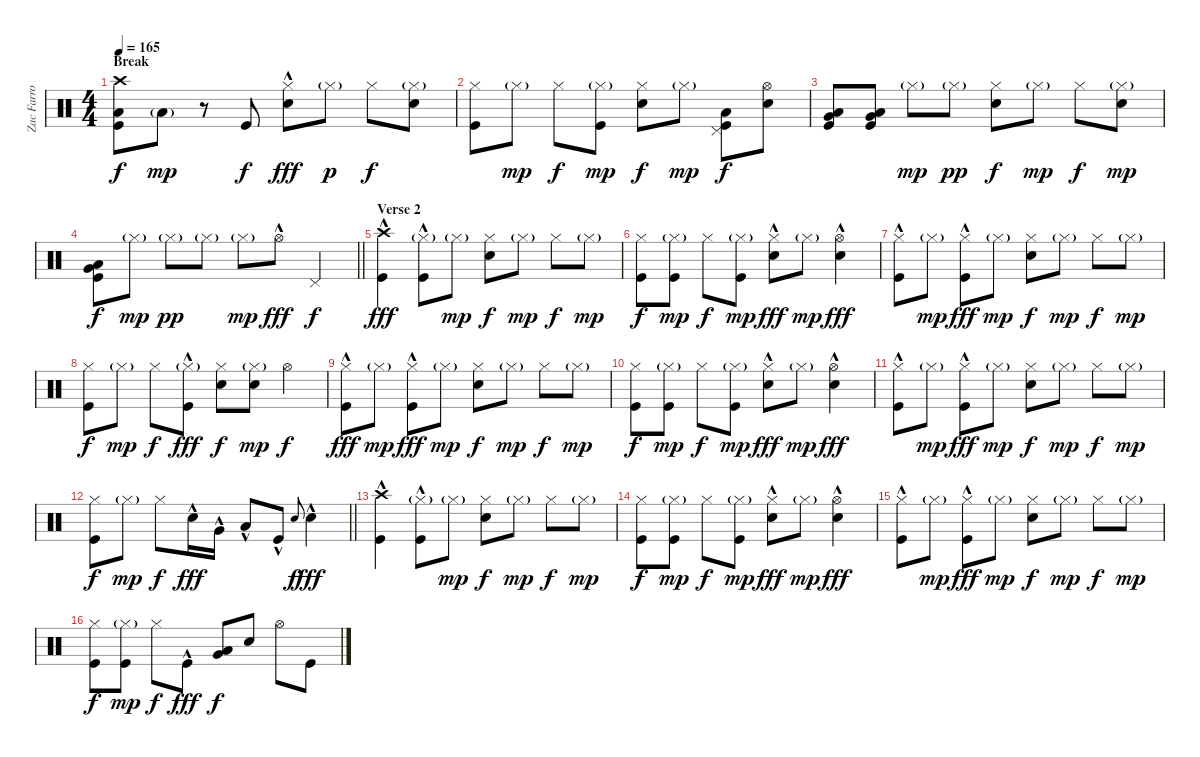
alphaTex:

\track ("Zac Farro (Drums)" "Zac Farro ") {instrument percussion}
\staff {score}
\articulation defaults
\ts (4 4)
\section ("" "Break")
\tempo 165
\clef neutral
\ks c
("Crash high (hit)" "Low Floor Tom (hit)" "Kick (hit)").8{dy f} "Low Floor Tom (hit)"{g}.8{dy mp} r.8 "Kick (hit)".8{dy f} ("Hi-Hat (closed)"{hac} "Electric Snare (hit)").8{dy fff} "Hi-Hat (closed)"{g}.8{dy p} "Hi-Hat (closed)".8{dy f} ("Hi-Hat (closed)"{g} "Electric Snare (hit)").8 |
("Hi-Hat (closed)" "Kick (hit)").8 "Hi-Hat (closed)"{g}.8{dy mp} "Hi-Hat (closed)".8{dy f} ("Hi-Hat (closed)"{g} "Kick (hit)").8{dy mp} ("Hi-Hat (closed)" "Electric Snare (hit)").8{dy f} "Hi-Hat (closed)"{g}.8{dy mp} ("Low Floor Tom (hit)" "Pedal Hi-Hat (hit)" "Kick (hit)").8{dy f} ("Hi-Hat (open)" "Electric Snare (hit)").8 |
("Very Low Tom (hit)" "Low Floor Tom (hit)" "Kick (hit)").8 ("Very Low Tom (hit)" "Low Floor Tom (hit)" "Kick (hit)").8 "Hi-Hat (closed)"{g}.8{dy mp} "Hi-Hat (closed)"{g}.8{dy pp} ("Hi-Hat (closed)" "Electric Snare (hit)").8{dy f} "Hi-Hat (closed)"{g}.8{dy mp} "Hi-Hat (closed)".8{dy f} ("Hi-Hat (closed)"{g} "Electric Snare (hit)").8{dy mp} |
\barLineRight lightlight
("Very Low Tom (hit)" "Low Floor Tom (hit)" "Kick (hit)").8{dy f} "Hi-Hat (closed)"{g}.8{dy mp} "Hi-Hat (closed)"{g}.8{dy pp} "Hi-Hat (closed)"{g}.8 "Hi-Hat (closed)"{g}.8{dy mp} "Hi-Hat (open)"{hac}.8{dy fff} "Pedal Hi-Hat (hit)".4{dy f} |
\section ("" "Verse 2")
("Crash high (hit)"{hac} "Kick (hit)"{hac}).4{dy fff} ("Hi-Hat (closed)"{g} "Kick (hit)"{hac}).8 "Hi-Hat (closed)"{g}.8{dy mp} ("Hi-Hat (closed)" "Electric Snare (hit)").8{dy f} "Hi-Hat (closed)"{g}.8{dy mp} "Hi-Hat (closed)".8{dy f} "Hi-Hat (closed)"{g}.8{dy mp} |
("Hi-Hat (closed)" "Kick (hit)").8{dy f} ("Hi-Hat (closed)"{g} "Kick (hit)").8{dy mp} "Hi-Hat (closed)".8{dy f} ("Hi-Hat (closed)"{g} "Kick (hit)").8{dy mp} ("Hi-Hat (closed)" "Electric Snare (hit)"{hac}).8{dy fff} "Hi-Hat (closed)"{g}.8{dy mp} ("Hi-Hat (open)"{hac} "Electric Snare (hit)"{hac}).4{dy fff} |
("Hi-Hat (closed)" "Kick (hit)"{hac}).8 "Hi-Hat (closed)"{g}.8{dy mp} ("Hi-Hat (closed)" "Kick (hit)"{hac}).8{dy fff} "Hi-Hat (closed)"{g}.8{dy mp} ("Hi-Hat (closed)" "Electric Snare (hit)").8{dy f} "Hi-Hat (closed)"{g}.8{dy mp} "Hi-Hat (closed)".8{dy f} "Hi-Hat (closed)"{g}.8{dy mp} |
("Hi-Hat (closed)" "Kick (hit)").8{dy f} "Hi-Hat (closed)"{g}.8{dy mp} "Hi-Hat (closed)".8{dy f} ("Hi-Hat (closed)"{g} "Kick (hit)"{hac}).8{dy fff} ("Hi-Hat (closed)" "Electric Snare (hit)").8{dy f} ("Hi-Hat (closed)"{g} "Electric Snare (hit)").8{dy mp} "Hi-Hat (open)".4{dy f} |
("Hi-Hat (closed)" "Kick (hit)"{hac}).8{dy fff} "Hi-Hat (closed)"{g}.8{dy mp} ("Hi-Hat (closed)" "Kick (hit)"{hac}).8{dy fff} "Hi-Hat (closed)"{g}.8{dy mp} ("Hi-Hat (closed)" "Electric Snare (hit)").8{dy f} "Hi-Hat (closed)"{g}.8{dy mp} "Hi-Hat (closed)".8{dy f} "Hi-Hat (closed)"{g}.8{dy mp} |
("Hi-Hat (closed)" "Kick (hit)").8{dy f} ("Hi-Hat (closed)"{g} "Kick (hit)").8{dy mp} "Hi-Hat (closed)".8{dy f} ("Hi-Hat (closed)"{g} "Kick (hit)").8{dy mp} ("Hi-Hat (closed)" "Electric Snare (hit)"{hac}).8{dy fff} "Hi-Hat (closed)"{g}.8{dy mp} ("Hi-Hat (open)"{hac} "Electric Snare (hit)"{hac}).4{dy fff} |
("Hi-Hat (closed)" "Kick (hit)"{hac}).8 "Hi-Hat (closed)"{g}.8{dy mp} ("Hi-Hat (closed)" "Kick (hit)"{hac}).8{dy fff} "Hi-Hat (closed)"{g}.8{dy mp} ("Hi-Hat (closed)" "Electric Snare (hit)").8{dy f} "Hi-Hat (closed)"{g}.8{dy mp} "Hi-Hat (closed)".8{dy f} "Hi-Hat (closed)"{g}.8{dy mp} |
\barLineRight lightlight
("Hi-Hat (closed)" "Kick (hit)").8{dy f} "Hi-Hat (closed)"{g}.8{dy mp} "Hi-Hat (closed)".8{dy f} "Electric Snare (hit)"{hac}.16{dy fff} "Very Low Tom (hit)"{hac}.16 "Low Floor Tom (hit)"{hac}.8 "Kick (hit)"{hac}.8 "Electric Snare (hit)".8{gr onbeat dy f} "Electric Snare (hit)"{hac}.4{dy fff} |
("Crash high (hit)"{hac} "Kick (hit)"{hac}).4 ("Hi-Hat (closed)"{g} "Kick (hit)"{hac}).8 "Hi-Hat (closed)"{g}.8{dy mp} ("Hi-Hat (closed)" "Electric Snare (hit)").8{dy f} "Hi-Hat (closed)"{g}.8{dy mp} "Hi-Hat (closed)".8{dy f} "Hi-Hat (closed)"{g}.8{dy mp} |
("Hi-Hat (closed)" "Kick (hit)").8{dy f} ("Hi-Hat (closed)"{g} "Kick (hit)").8{dy mp} "Hi-Hat (closed)".8{dy f} ("Hi-Hat (closed)"{g} "Kick (hit)").8{dy mp} ("Hi-Hat (closed)" "Electric Snare (hit)"{hac}).8{dy fff} "Hi-Hat (closed)"{g}.8{dy mp} ("Hi-Hat (open)"{hac} "Electric Snare (hit)"{hac}).4{dy fff} |
("Hi-Hat (closed)" "Kick (hit)"{hac}).8 "Hi-Hat (closed)"{g}.8{dy mp} ("Hi-Hat (closed)" "Kick (hit)"{hac}).8{dy fff} "Hi-Hat (closed)"{g}.8{dy mp} ("Hi-Hat (closed)" "Electric Snare (hit)").8{dy f} "Hi-Hat (closed)"{g}.8{dy mp} "Hi-Hat (closed)".8{dy f} "Hi-Hat (closed)"{g}.8{dy mp} |
("Hi-Hat (closed)" "Kick (hit)").8{dy f} ("Hi-Hat (closed)"{g} "Kick (hit)").8{dy mp} "Hi-Hat (closed)".8{dy f} "Kick (hit)"{hac}.8{dy fff} ("Very Low Tom (hit)" "Low Floor Tom (hit)").8{dy f} "Electric Snare (hit)".8 "Hi-Hat (open)".8 "Kick (hit)".8
